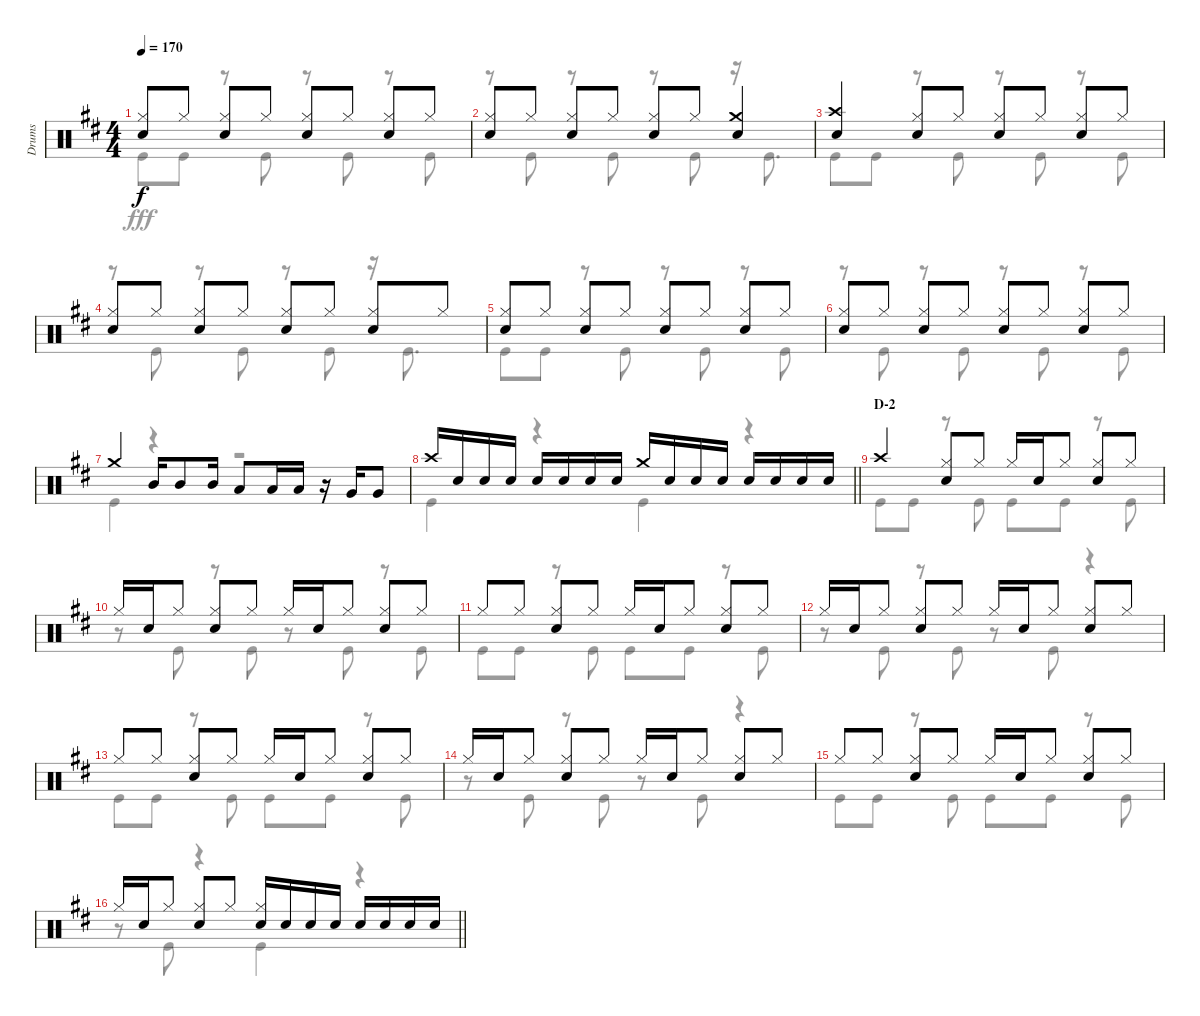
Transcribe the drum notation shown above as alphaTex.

\track ("Drums" "Drums") {instrument percussion}
\staff {score}
\articulation defaults
\voice
\ts (4 4)
\tempo 170
\clef neutral
\ks d
("Hi-Hat (closed)" "Snare (hit) 2").8{dy f} "Hi-Hat (closed)".8 ("Hi-Hat (closed)" "Snare (hit) 2").8 "Hi-Hat (closed)".8 ("Hi-Hat (closed)" "Snare (hit) 2").8 "Hi-Hat (closed)".8 ("Hi-Hat (closed)" "Snare (hit) 2").8 "Hi-Hat (closed)".8 |
("Hi-Hat (closed)" "Snare (hit) 2").8 "Hi-Hat (closed)".8 ("Hi-Hat (closed)" "Snare (hit) 2").8 "Hi-Hat (closed)".8 ("Hi-Hat (closed)" "Snare (hit) 2").8 "Hi-Hat (closed)".8 ("Crash medium (hit)" "Snare (hit) 2").4 |
("Crash high (hit)" "Snare (hit) 2").4 ("Hi-Hat (closed)" "Snare (hit) 2").8 "Hi-Hat (closed)".8 ("Hi-Hat (closed)" "Snare (hit) 2").8 "Hi-Hat (closed)".8 ("Hi-Hat (closed)" "Snare (hit) 2").8 "Hi-Hat (closed)".8 |
("Hi-Hat (closed)" "Snare (hit) 2").8 "Hi-Hat (closed)".8 ("Hi-Hat (closed)" "Snare (hit) 2").8 "Hi-Hat (closed)".8 ("Hi-Hat (closed)" "Snare (hit) 2").8 "Hi-Hat (closed)".8 ("Hi-Hat (closed)" "Snare (hit) 2").8 "Hi-Hat (closed)".8 |
("Hi-Hat (closed)" "Snare (hit) 2").8 "Hi-Hat (closed)".8 ("Hi-Hat (closed)" "Snare (hit) 2").8 "Hi-Hat (closed)".8 ("Hi-Hat (closed)" "Snare (hit) 2").8 "Hi-Hat (closed)".8 ("Hi-Hat (closed)" "Snare (hit) 2").8 "Hi-Hat (closed)".8 |
("Hi-Hat (closed)" "Snare (hit) 2").8 "Hi-Hat (closed)".8 ("Hi-Hat (closed)" "Snare (hit) 2").8 "Hi-Hat (closed)".8 ("Hi-Hat (closed)" "Snare (hit) 2").8 "Hi-Hat (closed)".8 ("Hi-Hat (closed)" "Snare (hit) 2").8 "Hi-Hat (closed)".8 |
"Crash medium (hit)".4 "Mid Tom (hit)".16 "Mid Tom (hit)".8 "Mid Tom (hit)".16 "Low Tom (hit)".8 "Low Tom (hit)".16 "Low Tom (hit)".16 r.16 "Very Low Tom (hit)".16 "Very Low Tom (hit)".8 |
\barLineRight lightlight "Crash high (hit)".16 "Snare (hit) 2".16 "Snare (hit) 2".16 "Snare (hit) 2".16 "Snare (hit) 2".16 "Snare (hit) 2".16 "Snare (hit) 2".16 "Snare (hit) 2".16 "Crash medium (hit)".16 "Snare (hit) 2".16 "Snare (hit) 2".16 "Snare (hit) 2".16 "Snare (hit) 2".16 "Snare (hit) 2".16 "Snare (hit) 2".16 "Snare (hit) 2".16
|
\section ("" "D-2")
"Crash high (hit)".4 ("Hi-Hat (closed)" "Snare (hit) 2").8 "Hi-Hat (closed)".8 "Hi-Hat (closed)".16 "Snare (hit) 2".16 "Hi-Hat (closed)".8 ("Hi-Hat (closed)" "Snare (hit) 2").8 "Hi-Hat (closed)".8 |
"Hi-Hat (closed)".16 "Snare (hit) 2".16 "Hi-Hat (closed)".8 ("Hi-Hat (closed)" "Snare (hit) 2").8 "Hi-Hat (closed)".8 "Hi-Hat (closed)".16 "Snare (hit) 2".16 "Hi-Hat (closed)".8 ("Hi-Hat (closed)" "Snare (hit) 2").8 "Hi-Hat (closed)".8 |
"Hi-Hat (closed)".8 "Hi-Hat (closed)".8 ("Hi-Hat (closed)" "Snare (hit) 2").8 "Hi-Hat (closed)".8 "Hi-Hat (closed)".16 "Snare (hit) 2".16 "Hi-Hat (closed)".8 ("Hi-Hat (closed)" "Snare (hit) 2").8 "Hi-Hat (closed)".8 |
"Hi-Hat (closed)".16 "Snare (hit) 2".16 "Hi-Hat (closed)".8 ("Hi-Hat (closed)" "Snare (hit) 2").8 "Hi-Hat (closed)".8 "Hi-Hat (closed)".16 "Snare (hit) 2".16 "Hi-Hat (closed)".8 ("Hi-Hat (closed)" "Snare (hit) 2").8 "Hi-Hat (closed)".8 |
"Hi-Hat (closed)".8 "Hi-Hat (closed)".8 ("Hi-Hat (closed)" "Snare (hit) 2").8 "Hi-Hat (closed)".8 "Hi-Hat (closed)".16 "Snare (hit) 2".16 "Hi-Hat (closed)".8 ("Hi-Hat (closed)" "Snare (hit) 2").8 "Hi-Hat (closed)".8 |
"Hi-Hat (closed)".16 "Snare (hit) 2".16 "Hi-Hat (closed)".8 ("Hi-Hat (closed)" "Snare (hit) 2").8 "Hi-Hat (closed)".8 "Hi-Hat (closed)".16 "Snare (hit) 2".16 "Hi-Hat (closed)".8 ("Hi-Hat (closed)" "Snare (hit) 2").8 "Hi-Hat (closed)".8 |
"Hi-Hat (closed)".8 "Hi-Hat (closed)".8 ("Hi-Hat (closed)" "Snare (hit) 2").8 "Hi-Hat (closed)".8 "Hi-Hat (closed)".16 "Snare (hit) 2".16 "Hi-Hat (closed)".8 ("Hi-Hat (closed)" "Snare (hit) 2").8 "Hi-Hat (closed)".8 |
\barLineRight lightlight "Hi-Hat (closed)".16 "Snare (hit) 2".16 "Hi-Hat (closed)".8
("Hi-Hat (closed)" "Snare (hit) 2").8 "Hi-Hat (closed)".8 ("Hi-Hat (closed)" "Snare (hit) 2").16 "Snare (hit) 2".16 "Snare (hit) 2".16 "Snare (hit) 2".16 "Snare (hit) 2".16 "Snare (hit) 2".16 "Snare (hit) 2".16 "Snare (hit) 2".16
\voice
\clef neutral
\ottava regular
\simile none
\ks d "Kick (hit)".8{dy fff} "Kick (hit)".8
r.8 "Kick (hit)".8 r.8 "Kick (hit)".8 r.8 "Kick (hit)".8 |
r.8 "Kick (hit)".8 r.8 "Kick (hit)".8 r.8 "Kick (hit)".8 r.16 "Kick (hit)".8{d} |
"Kick (hit)".8 "Kick (hit)".8 r.8 "Kick (hit)".8 r.8 "Kick (hit)".8 r.8 "Kick (hit)".8 |
r.8 "Kick (hit)".8 r.8 "Kick (hit)".8 r.8 "Kick (hit)".8 r.16 "Kick (hit)".8{d} |
"Kick (hit)".8 "Kick (hit)".8 r.8 "Kick (hit)".8 r.8 "Kick (hit)".8 r.8 "Kick (hit)".8 |
r.8 "Kick (hit)".8 r.8 "Kick (hit)".8 r.8 "Kick (hit)".8 r.8 "Kick (hit)".8 |
"Kick (hit)".4 r.4 r.2 |
\barLineRight lightlight "Kick (hit)".4
r.4 "Kick (hit)".4 r.4 |
"Kick (hit)".8 "Kick (hit)".8 r.8 "Kick (hit)".8 "Kick (hit)".8 "Kick (hit)".8 r.8 "Kick (hit)".8 |
r.8 "Kick (hit)".8 r.8 "Kick (hit)".8 r.8 "Kick (hit)".8 r.8 "Kick (hit)".8 |
"Kick (hit)".8 "Kick (hit)".8 r.8 "Kick (hit)".8 "Kick (hit)".8 "Kick (hit)".8 r.8 "Kick (hit)".8 |
r.8 "Kick (hit)".8 r.8 "Kick (hit)".8 r.8 "Kick (hit)".8 r.4 |
"Kick (hit)".8 "Kick (hit)".8 r.8 "Kick (hit)".8 "Kick (hit)".8 "Kick (hit)".8 r.8 "Kick (hit)".8 |
r.8 "Kick (hit)".8 r.8 "Kick (hit)".8 r.8 "Kick (hit)".8 r.4 |
"Kick (hit)".8 "Kick (hit)".8 r.8 "Kick (hit)".8 "Kick (hit)".8 "Kick (hit)".8 r.8 "Kick (hit)".8 |
\barLineRight lightlight
r.8 "Kick (hit)".8 r.4 "Kick (hit)".4 r.4
